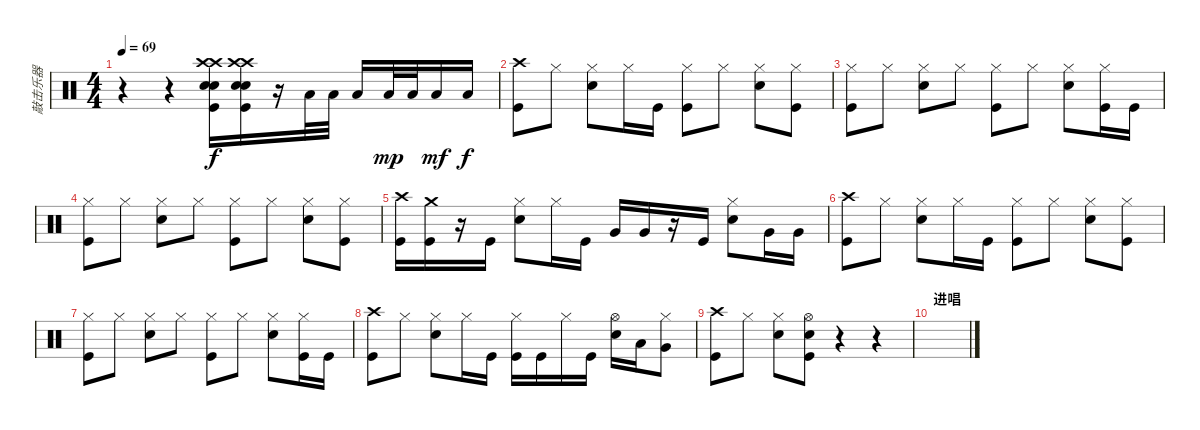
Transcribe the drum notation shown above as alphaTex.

\track ("敲击乐器" "敲击乐器") {instrument percussion}
\staff {score}
\articulation defaults
\ts (4 4)
\tempo 69
\clef neutral
\ks c
r.4{dy f} r.4 ("Crash high (hit)" "Crash high (hit)" "Snare (hit) 2" "Snare (hit) 2" "Kick (hit)").16 ("Crash high (hit)" "Crash high (hit)" "Snare (hit) 2" "Snare (hit) 2" "Kick (hit)").16 r.16 "Low Tom (hit)".32 "Low Tom (hit)".32 "Low Tom (hit)".16 "Low Tom (hit)".32{dy mp} "Low Tom (hit)".32 "Low Tom (hit)".16{dy mf} "Low Tom (hit)".16{dy f} |
("Crash high (hit)" "Kick (hit)").8 "Hi-Hat (closed)".8 ("Hi-Hat (closed)" "Snare (hit) 2").8 "Hi-Hat (closed)".16 "Kick (hit)".16 ("Hi-Hat (closed)" "Kick (hit)").8 "Hi-Hat (closed)".8 ("Hi-Hat (closed)" "Snare (hit) 2").8 ("Hi-Hat (closed)" "Kick (hit)").8 |
("Hi-Hat (closed)" "Kick (hit)").8 "Hi-Hat (closed)".8 ("Hi-Hat (closed)" "Snare (hit) 2").8 "Hi-Hat (closed)".8 ("Hi-Hat (closed)" "Kick (hit)").8 "Hi-Hat (closed)".8 ("Hi-Hat (closed)" "Snare (hit) 2").8 ("Hi-Hat (closed)" "Kick (hit)").16 "Kick (hit)".16 |
("Hi-Hat (closed)" "Kick (hit)").8 "Hi-Hat (closed)".8 ("Hi-Hat (closed)" "Snare (hit) 2").8 "Hi-Hat (closed)".8 ("Hi-Hat (closed)" "Kick (hit)").8 "Hi-Hat (closed)".8 ("Hi-Hat (closed)" "Snare (hit) 2").8 ("Hi-Hat (closed)" "Kick (hit)").8 |
("Crash high (hit)" "Kick (hit)").16 ("Crash medium (hit)" "Kick (hit)").16 r.16 "Kick (hit)".16 ("Hi-Hat (closed)" "Snare (hit) 2").8 "Hi-Hat (closed)".16 "Kick (hit)".16 "Very Low Tom (hit)".16 "Very Low Tom (hit)".16 r.16 "Kick (hit)".16 ("Hi-Hat (closed)" "Snare (hit) 2").8 "Very Low Tom (hit)".16 "Very Low Tom (hit)".16 |
("Crash high (hit)" "Kick (hit)").8 "Hi-Hat (closed)".8 ("Hi-Hat (closed)" "Snare (hit) 2").8 "Hi-Hat (closed)".16 "Kick (hit)".16 ("Hi-Hat (closed)" "Kick (hit)").8 "Hi-Hat (closed)".8 ("Hi-Hat (closed)" "Snare (hit) 2").8 ("Hi-Hat (closed)" "Kick (hit)").8 |
("Hi-Hat (closed)" "Kick (hit)").8 "Hi-Hat (closed)".8 ("Hi-Hat (closed)" "Snare (hit) 2").8 "Hi-Hat (closed)".8 ("Hi-Hat (closed)" "Kick (hit)").8 "Hi-Hat (closed)".8 ("Hi-Hat (closed)" "Snare (hit) 2").8 ("Hi-Hat (closed)" "Kick (hit)").16 "Kick (hit)".16 |
("Crash high (hit)" "Kick (hit)").8 "Hi-Hat (closed)".8 ("Hi-Hat (closed)" "Snare (hit) 2").8 "Hi-Hat (closed)".16 "Kick (hit)".16 ("Hi-Hat (closed)" "Kick (hit)").16 "Kick (hit)".16 "Hi-Hat (closed)".16 "Kick (hit)".16 ("Hi-Hat (open)" "Snare (hit) 2").16 "Low Tom (hit)".16 ("Hi-Hat (closed)" "Very Low Tom (hit)").8 |
("Crash high (hit)" "Kick (hit)").8 "Hi-Hat (closed)".8 ("Hi-Hat (closed)" "Snare (hit) 2").8 ("Hi-Hat (open)" "Snare (hit) 2" "Kick (hit)").8 r.4 r.4 |
\section ("" "进唱")
